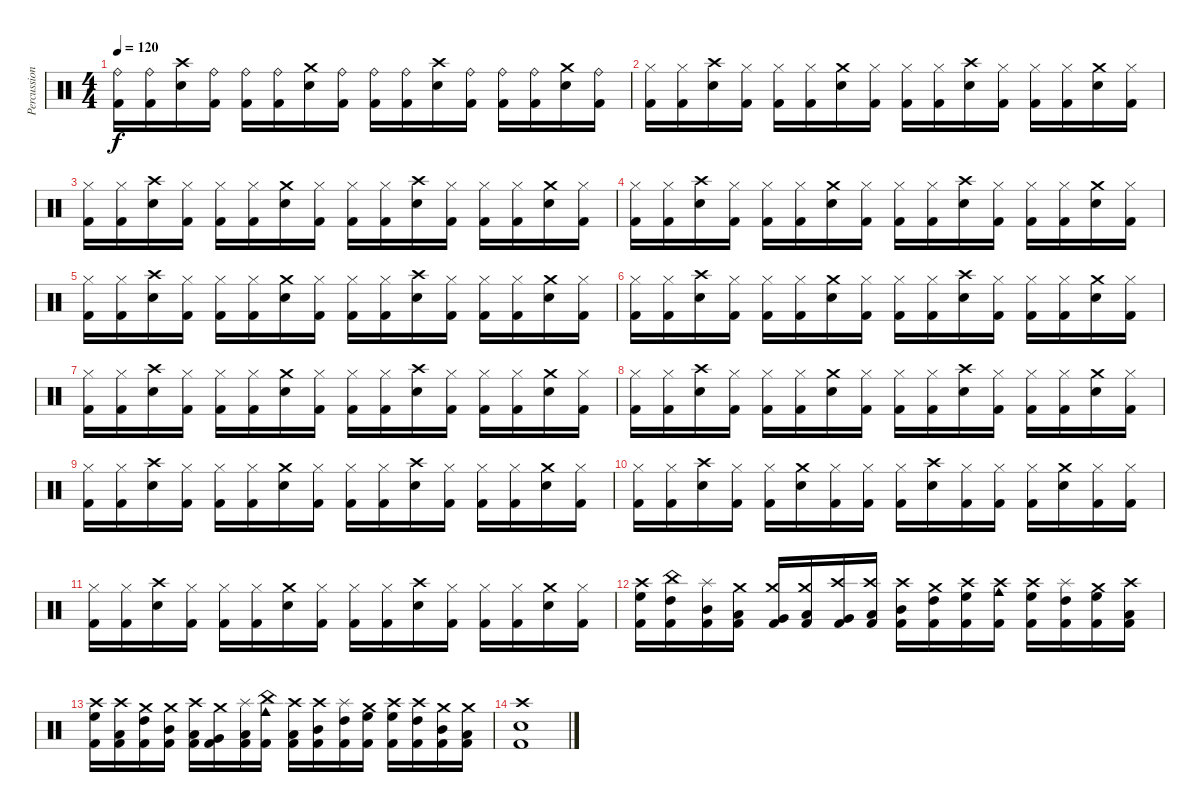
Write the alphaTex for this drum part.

\track ("Percussion" "Percussion") {instrument percussion}
\staff {score}
\articulation defaults
\ts (4 4)
\tempo 120
\clef neutral
\ks c
("Ride (bell)" "Kick (hit) 2").16{dy f} ("Ride (bell)" "Kick (hit) 2").16 ("Crash high (hit)" "Electric Snare (hit)").16 ("Ride (bell)" "Kick (hit) 2").16 ("Ride (bell)" "Kick (hit) 2").16 ("Ride (bell)" "Kick (hit) 2").16 ("Crash medium (hit)" "Electric Snare (hit)").16 ("Ride (bell)" "Kick (hit) 2").16 ("Ride (bell)" "Kick (hit) 2").16 ("Ride (bell)" "Kick (hit) 2").16 ("Crash high (hit)" "Electric Snare (hit)").16 ("Ride (bell)" "Kick (hit) 2").16 ("Ride (bell)" "Kick (hit) 2").16 ("Ride (bell)" "Kick (hit) 2").16 ("Crash medium (hit)" "Electric Snare (hit)").16 ("Ride (bell)" "Kick (hit) 2").16 |
("Kick (hit) 2" "Hi-Hat (closed)").16 ("Kick (hit) 2" "Hi-Hat (closed)").16 ("Electric Snare (hit)" "Crash high (hit)").16 ("Kick (hit) 2" "Hi-Hat (closed)").16 ("Kick (hit) 2" "Hi-Hat (closed)").16 ("Kick (hit) 2" "Hi-Hat (closed)").16 ("Electric Snare (hit)" "Crash medium (hit)").16 ("Kick (hit) 2" "Hi-Hat (closed)").16 ("Kick (hit) 2" "Hi-Hat (closed)").16 ("Kick (hit) 2" "Hi-Hat (closed)").16 ("Electric Snare (hit)" "Crash high (hit)").16 ("Kick (hit) 2" "Hi-Hat (closed)").16 ("Kick (hit) 2" "Hi-Hat (closed)").16 ("Kick (hit) 2" "Hi-Hat (closed)").16 ("Electric Snare (hit)" "Crash medium (hit)").16 ("Kick (hit) 2" "Hi-Hat (closed)").16 |
("Kick (hit) 2" "Hi-Hat (closed)").16 ("Kick (hit) 2" "Hi-Hat (closed)").16 ("Electric Snare (hit)" "Crash high (hit)").16 ("Kick (hit) 2" "Hi-Hat (closed)").16 ("Kick (hit) 2" "Hi-Hat (closed)").16 ("Kick (hit) 2" "Hi-Hat (closed)").16 ("Electric Snare (hit)" "Crash medium (hit)").16 ("Kick (hit) 2" "Hi-Hat (closed)").16 ("Kick (hit) 2" "Hi-Hat (closed)").16 ("Kick (hit) 2" "Hi-Hat (closed)").16 ("Electric Snare (hit)" "Crash high (hit)").16 ("Kick (hit) 2" "Hi-Hat (closed)").16 ("Kick (hit) 2" "Hi-Hat (closed)").16 ("Kick (hit) 2" "Hi-Hat (closed)").16 ("Electric Snare (hit)" "Crash medium (hit)").16 ("Kick (hit) 2" "Hi-Hat (closed)").16 |
("Kick (hit) 2" "Hi-Hat (closed)").16 ("Kick (hit) 2" "Hi-Hat (closed)").16 ("Electric Snare (hit)" "Crash high (hit)").16 ("Kick (hit) 2" "Hi-Hat (closed)").16 ("Kick (hit) 2" "Hi-Hat (closed)").16 ("Kick (hit) 2" "Hi-Hat (closed)").16 ("Electric Snare (hit)" "Crash medium (hit)").16 ("Kick (hit) 2" "Hi-Hat (closed)").16 ("Kick (hit) 2" "Hi-Hat (closed)").16 ("Kick (hit) 2" "Hi-Hat (closed)").16 ("Electric Snare (hit)" "Crash high (hit)").16 ("Kick (hit) 2" "Hi-Hat (closed)").16 ("Kick (hit) 2" "Hi-Hat (closed)").16 ("Kick (hit) 2" "Hi-Hat (closed)").16 ("Electric Snare (hit)" "Crash medium (hit)").16 ("Kick (hit) 2" "Hi-Hat (closed)").16 |
("Kick (hit) 2" "Hi-Hat (closed)").16 ("Kick (hit) 2" "Hi-Hat (closed)").16 ("Electric Snare (hit)" "Crash high (hit)").16 ("Kick (hit) 2" "Hi-Hat (closed)").16 ("Kick (hit) 2" "Hi-Hat (closed)").16 ("Kick (hit) 2" "Hi-Hat (closed)").16 ("Electric Snare (hit)" "Crash medium (hit)").16 ("Kick (hit) 2" "Hi-Hat (closed)").16 ("Kick (hit) 2" "Hi-Hat (closed)").16 ("Kick (hit) 2" "Hi-Hat (closed)").16 ("Electric Snare (hit)" "Crash high (hit)").16 ("Kick (hit) 2" "Hi-Hat (closed)").16 ("Kick (hit) 2" "Hi-Hat (closed)").16 ("Kick (hit) 2" "Hi-Hat (closed)").16 ("Electric Snare (hit)" "Crash medium (hit)").16 ("Kick (hit) 2" "Hi-Hat (closed)").16 |
("Kick (hit) 2" "Hi-Hat (closed)").16 ("Kick (hit) 2" "Hi-Hat (closed)").16 ("Electric Snare (hit)" "Crash high (hit)").16 ("Kick (hit) 2" "Hi-Hat (closed)").16 ("Kick (hit) 2" "Hi-Hat (closed)").16 ("Kick (hit) 2" "Hi-Hat (closed)").16 ("Electric Snare (hit)" "Crash medium (hit)").16 ("Kick (hit) 2" "Hi-Hat (closed)").16 ("Kick (hit) 2" "Hi-Hat (closed)").16 ("Kick (hit) 2" "Hi-Hat (closed)").16 ("Electric Snare (hit)" "Crash high (hit)").16 ("Kick (hit) 2" "Hi-Hat (closed)").16 ("Kick (hit) 2" "Hi-Hat (closed)").16 ("Kick (hit) 2" "Hi-Hat (closed)").16 ("Electric Snare (hit)" "Crash medium (hit)").16 ("Kick (hit) 2" "Hi-Hat (closed)").16 |
("Kick (hit) 2" "Hi-Hat (closed)").16 ("Kick (hit) 2" "Hi-Hat (closed)").16 ("Electric Snare (hit)" "Crash high (hit)").16 ("Kick (hit) 2" "Hi-Hat (closed)").16 ("Kick (hit) 2" "Hi-Hat (closed)").16 ("Kick (hit) 2" "Hi-Hat (closed)").16 ("Electric Snare (hit)" "Crash medium (hit)").16 ("Kick (hit) 2" "Hi-Hat (closed)").16 ("Kick (hit) 2" "Hi-Hat (closed)").16 ("Kick (hit) 2" "Hi-Hat (closed)").16 ("Electric Snare (hit)" "Crash high (hit)").16 ("Kick (hit) 2" "Hi-Hat (closed)").16 ("Kick (hit) 2" "Hi-Hat (closed)").16 ("Kick (hit) 2" "Hi-Hat (closed)").16 ("Electric Snare (hit)" "Crash medium (hit)").16 ("Kick (hit) 2" "Hi-Hat (closed)").16 |
("Kick (hit) 2" "Hi-Hat (closed)").16 ("Kick (hit) 2" "Hi-Hat (closed)").16 ("Electric Snare (hit)" "Crash high (hit)").16 ("Kick (hit) 2" "Hi-Hat (closed)").16 ("Kick (hit) 2" "Hi-Hat (closed)").16 ("Kick (hit) 2" "Hi-Hat (closed)").16 ("Electric Snare (hit)" "Crash medium (hit)").16 ("Kick (hit) 2" "Hi-Hat (closed)").16 ("Kick (hit) 2" "Hi-Hat (closed)").16 ("Kick (hit) 2" "Hi-Hat (closed)").16 ("Electric Snare (hit)" "Crash high (hit)").16 ("Kick (hit) 2" "Hi-Hat (closed)").16 ("Kick (hit) 2" "Hi-Hat (closed)").16 ("Kick (hit) 2" "Hi-Hat (closed)").16 ("Electric Snare (hit)" "Crash medium (hit)").16 ("Kick (hit) 2" "Hi-Hat (closed)").16 |
("Kick (hit) 2" "Hi-Hat (closed)").16 ("Kick (hit) 2" "Hi-Hat (closed)").16 ("Electric Snare (hit)" "Crash high (hit)").16 ("Kick (hit) 2" "Hi-Hat (closed)").16 ("Kick (hit) 2" "Hi-Hat (closed)").16 ("Kick (hit) 2" "Hi-Hat (closed)").16 ("Electric Snare (hit)" "Crash medium (hit)").16 ("Kick (hit) 2" "Hi-Hat (closed)").16 ("Kick (hit) 2" "Hi-Hat (closed)").16 ("Kick (hit) 2" "Hi-Hat (closed)").16 ("Electric Snare (hit)" "Crash high (hit)").16 ("Kick (hit) 2" "Hi-Hat (closed)").16 ("Kick (hit) 2" "Hi-Hat (closed)").16 ("Kick (hit) 2" "Hi-Hat (closed)").16 ("Electric Snare (hit)" "Crash medium (hit)").16 ("Kick (hit) 2" "Hi-Hat (closed)").16 |
("Kick (hit) 2" "Hi-Hat (closed)").16 ("Kick (hit) 2" "Hi-Hat (closed)").16 ("Electric Snare (hit)" "Crash high (hit)").16 ("Kick (hit) 2" "Hi-Hat (closed)").16 ("Kick (hit) 2" "Hi-Hat (closed)").16 ("Electric Snare (hit)" "Crash medium (hit)").16 ("Kick (hit) 2" "Hi-Hat (closed)").16 ("Kick (hit) 2" "Hi-Hat (closed)").16 ("Kick (hit) 2" "Hi-Hat (closed)").16 ("Electric Snare (hit)" "Crash high (hit)").16 ("Kick (hit) 2" "Hi-Hat (closed)").16 ("Kick (hit) 2" "Hi-Hat (closed)").16 ("Kick (hit) 2" "Hi-Hat (closed)").16 ("Electric Snare (hit)" "Crash medium (hit)").16 ("Kick (hit) 2" "Hi-Hat (closed)").16 ("Kick (hit) 2" "Hi-Hat (closed)").16 |
("Kick (hit) 2" "Hi-Hat (closed)").16 ("Kick (hit) 2" "Hi-Hat (closed)").16 ("Electric Snare (hit)" "Crash high (hit)").16 ("Kick (hit) 2" "Hi-Hat (closed)").16 ("Kick (hit) 2" "Hi-Hat (closed)").16 ("Kick (hit) 2" "Hi-Hat (closed)").16 ("Electric Snare (hit)" "Crash medium (hit)").16 ("Kick (hit) 2" "Hi-Hat (closed)").16 ("Kick (hit) 2" "Hi-Hat (closed)").16 ("Kick (hit) 2" "Hi-Hat (closed)").16 ("Electric Snare (hit)" "Crash high (hit)").16 ("Kick (hit) 2" "Hi-Hat (closed)").16 ("Kick (hit) 2" "Hi-Hat (closed)").16 ("Kick (hit) 2" "Hi-Hat (closed)").16 ("Electric Snare (hit)" "Crash medium (hit)").16 ("Kick (hit) 2" "Hi-Hat (closed)").16 |
("Kick (hit) 2" "High Floor Tom (hit)" "Crash high (hit)").16 ("Kick (hit) 2" "High Tom (hit)" "China (hit)").16 ("Kick (hit) 2" "Mid Tom (hit)" "Splash (hit)").16 ("Kick (hit) 2" "Low Tom (hit)" "Crash medium (hit)").16 ("Kick (hit) 2" "Very Low Tom (hit)" "Crash medium (hit)").16 ("Kick (hit) 2" "Low Floor Tom (hit)" "Crash medium (hit)").16 ("Kick (hit) 2" "Very Low Tom (hit)" "Crash high (hit)").16 ("Kick (hit) 2" "Low Tom (hit)" "Crash high (hit)").16 ("Kick (hit) 2" "Mid Tom (hit)" "Crash high (hit)").16 ("Kick (hit) 2" "High Tom (hit)" "Crash medium (hit)").16 ("Kick (hit) 2" "High Floor Tom (hit)" "Crash high (hit)").16 ("Kick (hit) 2" "Cowbell medium (hit)" "Crash high (hit)").16 ("Kick (hit) 2" "High Floor Tom (hit)" "Crash high (hit)").16 ("Kick (hit) 2" "High Tom (hit)" "Splash (hit)").16 ("Kick (hit) 2" "High Floor Tom (hit)" "Crash medium (hit)").16 ("Kick (hit) 2" "Low Tom (hit)" "Crash high (hit)").16 |
("Kick (hit) 2" "High Floor Tom (hit)" "Crash high (hit)").16 ("Kick (hit) 2" "Low Tom (hit)" "Crash high (hit)").16 ("Kick (hit) 2" "High Tom (hit)" "Crash medium (hit)").16 ("Kick (hit) 2" "Mid Tom (hit)" "Crash medium (hit)").16 ("Kick (hit) 2" "Low Tom (hit)" "Crash high (hit)").16 ("Kick (hit) 2" "Very Low Tom (hit)" "Crash medium (hit)").16 ("Kick (hit) 2" "Low Floor Tom (hit)" "Splash (hit)").16 ("Kick (hit) 2" "Cowbell medium (hit)" "China (hit)").16 ("Kick (hit) 2" "Low Tom (hit)" "Crash high (hit)").16 ("Kick (hit) 2" "Mid Tom (hit)" "Crash high (hit)").16 ("Kick (hit) 2" "High Tom (hit)" "Splash (hit)").16 ("Kick (hit) 2" "High Floor Tom (hit)" "Crash medium (hit)").16 ("Kick (hit) 2" "High Floor Tom (hit)" "Crash high (hit)").16 ("Kick (hit) 2" "High Tom (hit)" "Crash high (hit)").16 ("Kick (hit) 2" "Mid Tom (hit)" "Crash medium (hit)").16 ("Kick (hit) 2" "Low Tom (hit)" "Crash medium (hit)").16 |
("Kick (hit) 2" "Electric Snare (hit)" "Crash high (hit)").1
